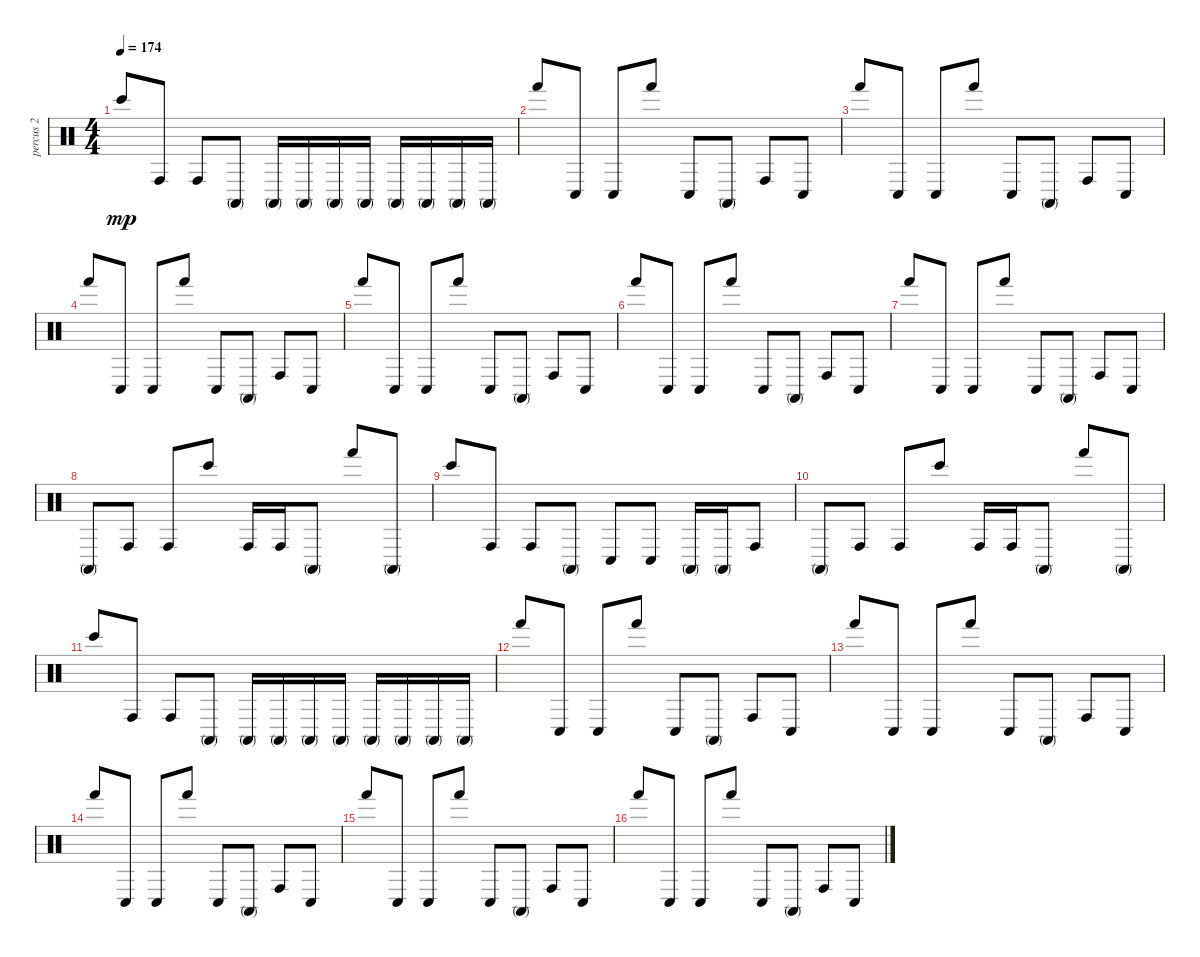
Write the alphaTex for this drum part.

\track ("percus 2" "percus 2") {instrument percussion}
\staff {score}
\articulation defaults
\ts (4 4)
\tempo 174
\clef neutral
\ks c "Bongo High (hit)".8{dy mp} "Conga high (hit)".8 "Conga high (hit)".8 "Conga high (mute)".8 "Conga high (mute)".16 "Conga high (mute)".16 "Conga high (mute)".16 "Conga high (mute)".16 "Conga high (mute)".16 "Conga high (mute)".16 "Conga high (mute)".16 "Conga high (mute)".16
|
"Hand (hit)".8 "Conga low (hit)".8 "Conga low (hit)".8 "Hand (hit)".8 "Conga low (hit)".8 "Conga high (mute)".8 "Conga high (hit)".8 "Conga low (hit)".8 |
"Hand (hit)".8 "Conga low (hit)".8 "Conga low (hit)".8 "Hand (hit)".8 "Conga low (hit)".8 "Conga high (mute)".8 "Conga high (hit)".8 "Conga low (hit)".8 |
"Hand (hit)".8 "Conga low (hit)".8 "Conga low (hit)".8 "Hand (hit)".8 "Conga low (hit)".8 "Conga high (mute)".8 "Conga high (hit)".8 "Conga low (hit)".8 |
"Hand (hit)".8 "Conga low (hit)".8 "Conga low (hit)".8 "Hand (hit)".8 "Conga low (hit)".8 "Conga high (mute)".8 "Conga high (hit)".8 "Conga low (hit)".8 |
"Hand (hit)".8 "Conga low (hit)".8 "Conga low (hit)".8 "Hand (hit)".8 "Conga low (hit)".8 "Conga high (mute)".8 "Conga high (hit)".8 "Conga low (hit)".8 |
"Hand (hit)".8 "Conga low (hit)".8 "Conga low (hit)".8 "Hand (hit)".8 "Conga low (hit)".8 "Conga high (mute)".8 "Conga high (hit)".8 "Conga low (hit)".8 |
"Conga high (mute)".8 "Conga high (hit)".8 "Conga high (hit)".8 "Bongo High (hit)".8 "Conga high (hit)".16 "Conga high (hit)".16 "Conga high (mute)".8 "Hand (hit)".8 "Conga high (mute)".8 |
"Bongo High (hit)".8 "Conga high (hit)".8 "Conga high (hit)".8 "Conga high (mute)".8 "Conga low (hit)".8 "Conga low (hit)".8 "Conga high (mute)".16 "Conga high (mute)".16 "Conga high (hit)".8 |
"Conga high (mute)".8 "Conga high (hit)".8 "Conga high (hit)".8 "Bongo High (hit)".8 "Conga high (hit)".16 "Conga high (hit)".16 "Conga high (mute)".8 "Hand (hit)".8 "Conga high (mute)".8 |
"Bongo High (hit)".8 "Conga high (hit)".8 "Conga high (hit)".8 "Conga high (mute)".8 "Conga high (mute)".16 "Conga high (mute)".16 "Conga high (mute)".16 "Conga high (mute)".16 "Conga high (mute)".16 "Conga high (mute)".16 "Conga high (mute)".16 "Conga high (mute)".16 |
"Hand (hit)".8 "Conga low (hit)".8 "Conga low (hit)".8 "Hand (hit)".8 "Conga low (hit)".8 "Conga high (mute)".8 "Conga high (hit)".8 "Conga low (hit)".8 |
"Hand (hit)".8 "Conga low (hit)".8 "Conga low (hit)".8 "Hand (hit)".8 "Conga low (hit)".8 "Conga high (mute)".8 "Conga high (hit)".8 "Conga low (hit)".8 |
"Hand (hit)".8 "Conga low (hit)".8 "Conga low (hit)".8 "Hand (hit)".8 "Conga low (hit)".8 "Conga high (mute)".8 "Conga high (hit)".8 "Conga low (hit)".8 |
"Hand (hit)".8 "Conga low (hit)".8 "Conga low (hit)".8 "Hand (hit)".8 "Conga low (hit)".8 "Conga high (mute)".8 "Conga high (hit)".8 "Conga low (hit)".8 |
"Hand (hit)".8 "Conga low (hit)".8 "Conga low (hit)".8 "Hand (hit)".8 "Conga low (hit)".8 "Conga high (mute)".8 "Conga high (hit)".8 "Conga low (hit)".8
